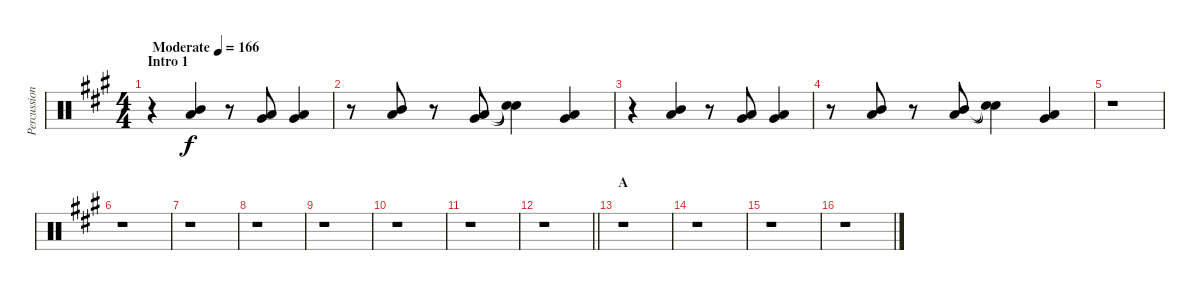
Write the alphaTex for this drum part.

\track ("Percussion II" "Percussion") {instrument percussion}
\staff {score}
\articulation defaults
\ts (4 4)
\section ("" "Intro 1")
\tempo (166 "Moderate")
\clef neutral
\ks a
r.4{dy f} ("Mid Tom (hit)" "Low Tom (hit)").4 r.8 ("Very Low Tom (hit)" "Low Tom (hit)").8 ("Very Low Tom (hit)" "Low Tom (hit)").4 |
r.8 ("Mid Tom (hit)" "Low Tom (hit)").8 r.8 ("Very Low Tom (hit)" "Low Tom (hit)").8 ("Snare (hit)"{t} "Snare (hit)"{t}).4 ("Very Low Tom (hit)" "Low Tom (hit)").4 |
r.4 ("Mid Tom (hit)" "Low Tom (hit)").4 r.8 ("Very Low Tom (hit)" "Low Tom (hit)").8 ("Very Low Tom (hit)" "Low Tom (hit)").4 |
r.8 ("Mid Tom (hit)" "Low Tom (hit)").8 r.8 ("Mid Tom (hit)" "Low Tom (hit)").8 ("Snare (hit)"{t} "Snare (hit)"{t}).4 ("Very Low Tom (hit)" "Low Tom (hit)").4 |
r.1 |
r.1 |
r.1 |
r.1 |
r.1 |
r.1 |
r.1 |
\barLineRight lightlight
r.1 |
\section ("" "A")
r.1 |
r.1 |
r.1 |
r.1
